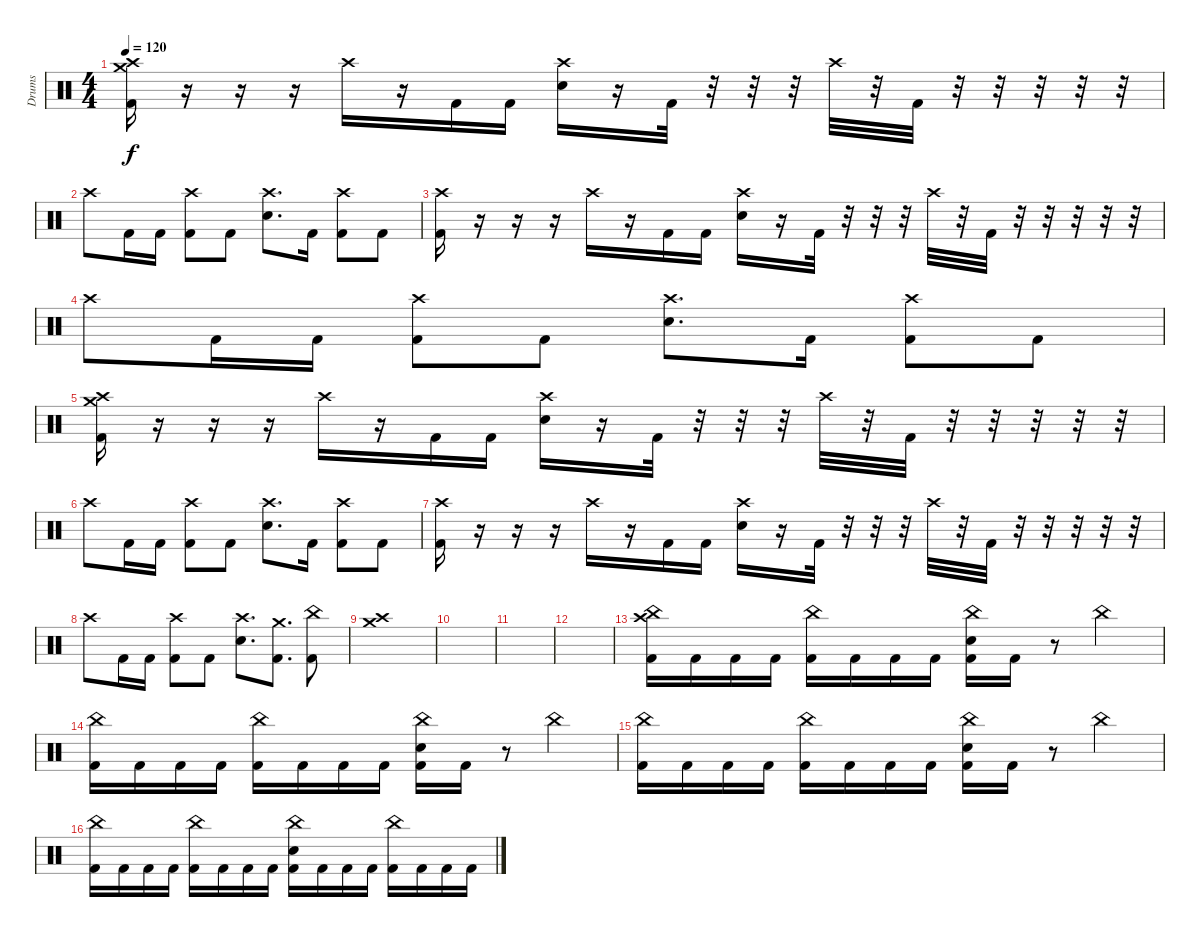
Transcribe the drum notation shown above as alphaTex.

\track ("Drums" "Drums") {instrument percussion}
\staff {score}
\articulation defaults
\ts (4 4)
\tempo 120
\clef neutral
\ks c
("Crash high (hit)" "Crash medium (hit)" "Kick (hit) 2").16{dy f} r.16 r.16 r.16 "Crash high (hit)".16 r.16 "Kick (hit) 2".16 "Kick (hit) 2".16 ("Crash high (hit)" "Electric Snare (hit)").16 r.16 "Kick (hit) 2".32 r.32 r.32 r.32 "Crash high (hit)".32 r.32 "Kick (hit) 2".32 r.32 r.32 r.32 r.32 r.32 |
"Crash high (hit)".8 "Kick (hit) 2".16 "Kick (hit) 2".16 ("Crash high (hit)" "Kick (hit) 2").8 "Kick (hit) 2".8 ("Crash high (hit)" "Electric Snare (hit)").8{d} "Kick (hit) 2".16 ("Crash high (hit)" "Kick (hit) 2").8 "Kick (hit) 2".8 |
("Crash high (hit)" "Kick (hit) 2").16 r.16 r.16 r.16 "Crash high (hit)".16 r.16 "Kick (hit) 2".16 "Kick (hit) 2".16 ("Crash high (hit)" "Electric Snare (hit)").16 r.16 "Kick (hit) 2".32 r.32 r.32 r.32 "Crash high (hit)".32 r.32 "Kick (hit) 2".32 r.32 r.32 r.32 r.32 r.32 |
"Crash high (hit)".8 "Kick (hit) 2".16 "Kick (hit) 2".16 ("Crash high (hit)" "Kick (hit) 2").8 "Kick (hit) 2".8 ("Crash high (hit)" "Electric Snare (hit)").8{d} "Kick (hit) 2".16 ("Crash high (hit)" "Kick (hit) 2").8 "Kick (hit) 2".8 |
("Crash high (hit)" "Crash medium (hit)" "Kick (hit) 2").16 r.16 r.16 r.16 "Crash high (hit)".16 r.16 "Kick (hit) 2".16 "Kick (hit) 2".16 ("Crash high (hit)" "Electric Snare (hit)").16 r.16 "Kick (hit) 2".32 r.32 r.32 r.32 "Crash high (hit)".32 r.32 "Kick (hit) 2".32 r.32 r.32 r.32 r.32 r.32 |
"Crash high (hit)".8 "Kick (hit) 2".16 "Kick (hit) 2".16 ("Crash high (hit)" "Kick (hit) 2").8 "Kick (hit) 2".8 ("Crash high (hit)" "Electric Snare (hit)").8{d} "Kick (hit) 2".16 ("Crash high (hit)" "Kick (hit) 2").8 "Kick (hit) 2".8 |
("Crash high (hit)" "Kick (hit) 2").16 r.16 r.16 r.16 "Crash high (hit)".16 r.16 "Kick (hit) 2".16 "Kick (hit) 2".16 ("Crash high (hit)" "Electric Snare (hit)").16 r.16 "Kick (hit) 2".32 r.32 r.32 r.32 "Crash high (hit)".32 r.32 "Kick (hit) 2".32 r.32 r.32 r.32 r.32 r.32 |
"Crash high (hit)".8 "Kick (hit) 2".16 "Kick (hit) 2".16 ("Crash high (hit)" "Kick (hit) 2").8 "Kick (hit) 2".8 ("Crash high (hit)" "Electric Snare (hit)").8{d} ("Crash medium (hit)" "Kick (hit) 2").8{d} ("China (hit)" "Kick (hit) 2").8 |
("Crash high (hit)" "Crash medium (hit)").1 |
|
|
|
("China (hit)" "Crash high (hit)" "Kick (hit) 2").16 "Kick (hit) 2".16 "Kick (hit) 2".16 "Kick (hit) 2".16 ("China (hit)" "Kick (hit) 2").16 "Kick (hit) 2".16 "Kick (hit) 2".16 "Kick (hit) 2".16 ("China (hit)" "Electric Snare (hit)" "Kick (hit) 2").16 "Kick (hit) 2".16 r.8 "China (hit)".4 |
("China (hit)" "Kick (hit) 2").16 "Kick (hit) 2".16 "Kick (hit) 2".16 "Kick (hit) 2".16 ("China (hit)" "Kick (hit) 2").16 "Kick (hit) 2".16 "Kick (hit) 2".16 "Kick (hit) 2".16 ("China (hit)" "Electric Snare (hit)" "Kick (hit) 2").16 "Kick (hit) 2".16 r.8 "China (hit)".4 |
("China (hit)" "Kick (hit) 2").16 "Kick (hit) 2".16 "Kick (hit) 2".16 "Kick (hit) 2".16 ("China (hit)" "Kick (hit) 2").16 "Kick (hit) 2".16 "Kick (hit) 2".16 "Kick (hit) 2".16 ("China (hit)" "Electric Snare (hit)" "Kick (hit) 2").16 "Kick (hit) 2".16 r.8 "China (hit)".4 |
("China (hit)" "Kick (hit) 2").16 "Kick (hit) 2".16 "Kick (hit) 2".16 "Kick (hit) 2".16 ("China (hit)" "Kick (hit) 2").16 "Kick (hit) 2".16 "Kick (hit) 2".16 "Kick (hit) 2".16 ("China (hit)" "Electric Snare (hit)" "Kick (hit) 2").16 "Kick (hit) 2".16 "Kick (hit) 2".16 "Kick (hit) 2".16 ("China (hit)" "Kick (hit) 2").16 "Kick (hit) 2".16 "Kick (hit) 2".16 "Kick (hit) 2".16
